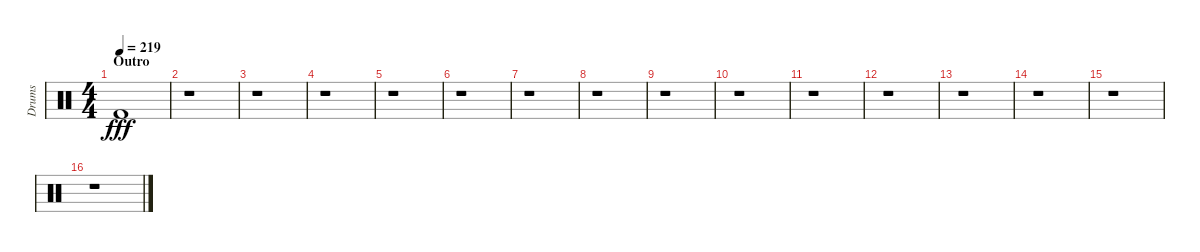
\track ("Drums" "Drums") {instrument percussion}
\staff {score}
\articulation defaults
\ts (4 4)
\section ("" "Outro")
\tempo 219
\clef neutral
\ks c "Kick (hit) 2".1{dy fff}
|
r.1 |
r.1 |
r.1 |
r.1 |
r.1 |
r.1 |
r.1 |
r.1 |
r.1 |
r.1 |
r.1 |
r.1 |
r.1 |
r.1 |
r.1
